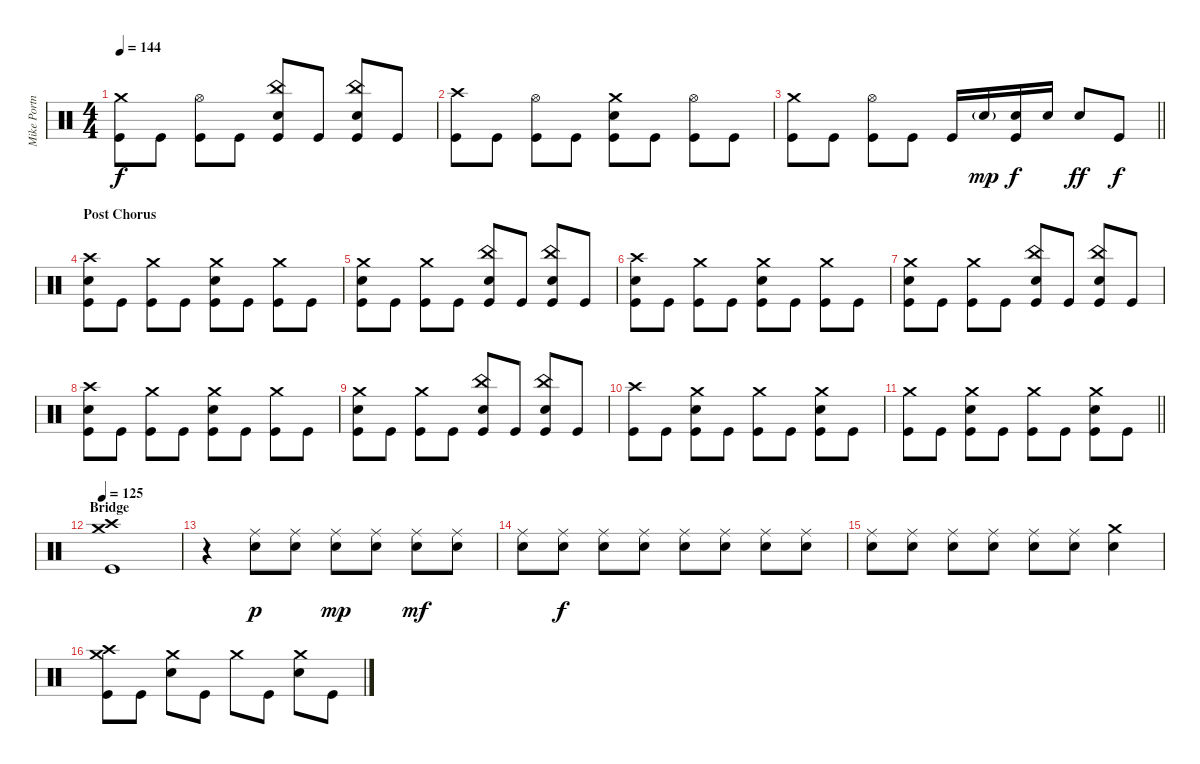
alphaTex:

\track ("Mike Portnoy" "Mike Portn") {instrument percussion}
\staff {score}
\articulation defaults
\ts (4 4)
\tempo 144
\clef neutral
\ks c
("Crash medium (hit)" "Kick (hit)").8{dy f} "Kick (hit)".8 ("Hi-Hat (open)" "Kick (hit)").8 "Kick (hit)".8 ("China (hit)" "Electric Snare (hit)" "Kick (hit)").8 "Kick (hit)".8 ("China (hit)" "Electric Snare (hit)" "Kick (hit)").8 "Kick (hit)".8 |
("Crash high (hit)" "Kick (hit)").8 "Kick (hit)".8 ("Hi-Hat (open)" "Kick (hit)").8 "Kick (hit)".8 ("Crash medium (hit)" "Electric Snare (hit)" "Kick (hit)").8 "Kick (hit)".8 ("Hi-Hat (open)" "Kick (hit)").8 "Kick (hit)".8 |
\barLineRight lightlight
("Crash medium (hit)" "Kick (hit)").8 "Kick (hit)".8 ("Hi-Hat (open)" "Kick (hit)").8 "Kick (hit)".8 "Kick (hit)".16 "Electric Snare (hit)"{g}.16{dy mp} ("Electric Snare (hit)" "Kick (hit)").16{dy f} "Electric Snare (hit)".16 "Electric Snare (hit)".8{dy ff} "Kick (hit)".8{dy f} |
\section ("" "Post Chorus")
("Crash high (hit)" "Electric Snare (hit)" "Kick (hit)").8 "Kick (hit)".8 ("Crash medium (hit)" "Kick (hit)").8 "Kick (hit)".8 ("Crash medium (hit)" "Electric Snare (hit)" "Kick (hit)").8 "Kick (hit)".8 ("Crash medium (hit)" "Kick (hit)").8 "Kick (hit)".8 |
("Crash medium (hit)" "Electric Snare (hit)" "Kick (hit)").8 "Kick (hit)".8 ("Crash medium (hit)" "Kick (hit)").8 "Kick (hit)".8 ("China (hit)" "Electric Snare (hit)" "Kick (hit)").8 "Kick (hit)".8 ("China (hit)" "Electric Snare (hit)" "Kick (hit)").8 "Kick (hit)".8 |
("Crash high (hit)" "Electric Snare (hit)" "Kick (hit)").8 "Kick (hit)".8 ("Crash medium (hit)" "Kick (hit)").8 "Kick (hit)".8 ("Crash medium (hit)" "Electric Snare (hit)" "Kick (hit)").8 "Kick (hit)".8 ("Crash medium (hit)" "Kick (hit)").8 "Kick (hit)".8 |
("Crash medium (hit)" "Electric Snare (hit)" "Kick (hit)").8 "Kick (hit)".8 ("Crash medium (hit)" "Kick (hit)").8 "Kick (hit)".8 ("China (hit)" "Electric Snare (hit)" "Kick (hit)").8 "Kick (hit)".8 ("China (hit)" "Electric Snare (hit)" "Kick (hit)").8 "Kick (hit)".8 |
("Crash high (hit)" "Electric Snare (hit)" "Kick (hit)").8 "Kick (hit)".8 ("Crash medium (hit)" "Kick (hit)").8 "Kick (hit)".8 ("Crash medium (hit)" "Electric Snare (hit)" "Kick (hit)").8 "Kick (hit)".8 ("Crash medium (hit)" "Kick (hit)").8 "Kick (hit)".8 |
("Crash medium (hit)" "Electric Snare (hit)" "Kick (hit)").8 "Kick (hit)".8 ("Crash medium (hit)" "Kick (hit)").8 "Kick (hit)".8 ("China (hit)" "Electric Snare (hit)" "Kick (hit)").8 "Kick (hit)".8 ("China (hit)" "Electric Snare (hit)" "Kick (hit)").8 "Kick (hit)".8 |
("Crash high (hit)" "Kick (hit)").8 "Kick (hit)".8 ("Crash medium (hit)" "Electric Snare (hit)" "Kick (hit)").8 "Kick (hit)".8 ("Crash medium (hit)" "Kick (hit)").8 "Kick (hit)".8 ("Crash medium (hit)" "Electric Snare (hit)" "Kick (hit)").8 "Kick (hit)".8 |
\barLineRight lightlight
("Crash medium (hit)" "Kick (hit)").8 "Kick (hit)".8 ("Crash medium (hit)" "Electric Snare (hit)" "Kick (hit)").8 "Kick (hit)".8 ("Crash medium (hit)" "Kick (hit)").8 "Kick (hit)".8 ("Crash medium (hit)" "Electric Snare (hit)" "Kick (hit)").8 "Kick (hit)".8 |
\section ("" "Bridge")
\tempo 125
("Crash high (hit)" "Crash medium (hit)" "Kick (hit)").1 |
r.4 ("Ride (middle)" "Electric Snare (hit)").8{dy p} ("Ride (middle)" "Electric Snare (hit)").8 ("Ride (middle)" "Electric Snare (hit)").8{dy mp} ("Ride (middle)" "Electric Snare (hit)").8 ("Ride (middle)" "Electric Snare (hit)").8{dy mf} ("Ride (middle)" "Electric Snare (hit)").8 |
("Ride (middle)" "Electric Snare (hit)").8 ("Ride (middle)" "Electric Snare (hit)").8{dy f} ("Ride (middle)" "Electric Snare (hit)").8 ("Ride (middle)" "Electric Snare (hit)").8 ("Ride (middle)" "Electric Snare (hit)").8 ("Ride (middle)" "Electric Snare (hit)").8 ("Ride (middle)" "Electric Snare (hit)").8 ("Ride (middle)" "Electric Snare (hit)").8 |
("Ride (middle)" "Electric Snare (hit)").8 ("Ride (middle)" "Electric Snare (hit)").8 ("Ride (middle)" "Electric Snare (hit)").8 ("Ride (middle)" "Electric Snare (hit)").8 ("Ride (middle)" "Electric Snare (hit)").8 ("Ride (middle)" "Electric Snare (hit)").8 ("Crash medium (hit)" "Electric Snare (hit)").4 |
("Crash high (hit)" "Crash medium (hit)" "Kick (hit)").8 "Kick (hit)".8 ("Crash medium (hit)" "Electric Snare (hit)").8 "Kick (hit)".8 "Crash medium (hit)".8 "Kick (hit)".8 ("Crash medium (hit)" "Electric Snare (hit)").8 "Kick (hit)".8
